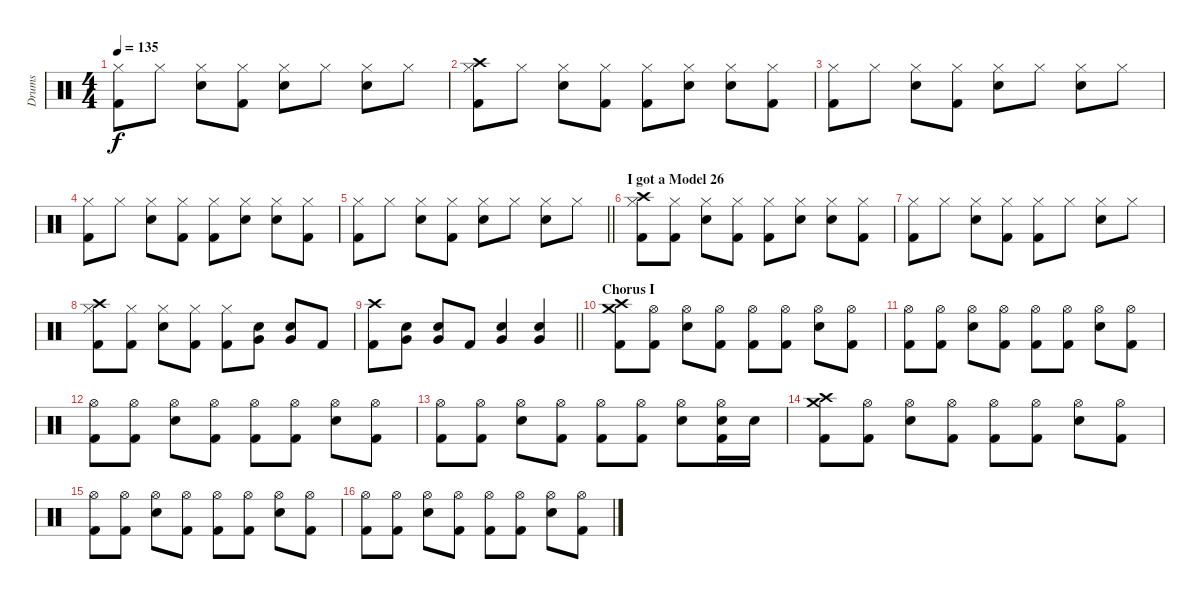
\track ("Drums" "Drums") {instrument percussion}
\staff {score}
\articulation defaults
\ts (4 4)
\tempo 135
\clef neutral
\ks c
("Hi-Hat (closed)" "Kick (hit) 2").8{dy f volume 13} "Hi-Hat (closed)".8 ("Hi-Hat (closed)" "Electric Snare (hit)").8 ("Hi-Hat (closed)" "Kick (hit) 2").8 ("Hi-Hat (closed)" "Electric Snare (hit)").8 "Hi-Hat (closed)".8 ("Hi-Hat (closed)" "Electric Snare (hit)").8 "Hi-Hat (closed)".8 |
("Crash high (hit)" "Hi-Hat (closed)" "Kick (hit) 2").8 "Hi-Hat (closed)".8 ("Hi-Hat (closed)" "Electric Snare (hit)").8 ("Hi-Hat (closed)" "Kick (hit) 2").8 ("Hi-Hat (closed)" "Kick (hit) 2").8 ("Hi-Hat (closed)" "Electric Snare (hit)").8 ("Hi-Hat (closed)" "Electric Snare (hit)").8 ("Hi-Hat (closed)" "Kick (hit) 2").8 |
("Hi-Hat (closed)" "Kick (hit) 2").8{volume 13} "Hi-Hat (closed)".8 ("Hi-Hat (closed)" "Electric Snare (hit)").8 ("Hi-Hat (closed)" "Kick (hit) 2").8 ("Hi-Hat (closed)" "Electric Snare (hit)").8 "Hi-Hat (closed)".8 ("Hi-Hat (closed)" "Electric Snare (hit)").8 "Hi-Hat (closed)".8 |
("Hi-Hat (closed)" "Kick (hit) 2").8 "Hi-Hat (closed)".8 ("Hi-Hat (closed)" "Electric Snare (hit)").8 ("Hi-Hat (closed)" "Kick (hit) 2").8 ("Hi-Hat (closed)" "Kick (hit) 2").8 ("Hi-Hat (closed)" "Electric Snare (hit)").8 ("Hi-Hat (closed)" "Electric Snare (hit)").8 ("Hi-Hat (closed)" "Kick (hit) 2").8 |
\barLineRight lightlight
("Hi-Hat (closed)" "Kick (hit) 2").8{volume 13} "Hi-Hat (closed)".8 ("Hi-Hat (closed)" "Electric Snare (hit)").8 ("Hi-Hat (closed)" "Kick (hit) 2").8 ("Hi-Hat (closed)" "Electric Snare (hit)").8 "Hi-Hat (closed)".8 ("Hi-Hat (closed)" "Electric Snare (hit)").8 "Hi-Hat (closed)".8 |
\section ("" "I got a Model 26")
("Crash high (hit)" "Hi-Hat (closed)" "Kick (hit) 2").8 ("Hi-Hat (closed)" "Kick (hit) 2").8 ("Hi-Hat (closed)" "Electric Snare (hit)").8 ("Hi-Hat (closed)" "Kick (hit) 2").8 ("Hi-Hat (closed)" "Kick (hit) 2").8 ("Hi-Hat (closed)" "Electric Snare (hit)").8 ("Hi-Hat (closed)" "Electric Snare (hit)").8 ("Hi-Hat (closed)" "Kick (hit) 2").8 |
("Hi-Hat (closed)" "Kick (hit) 2").8 "Hi-Hat (closed)".8 ("Hi-Hat (closed)" "Electric Snare (hit)").8 ("Hi-Hat (closed)" "Kick (hit) 2").8 ("Hi-Hat (closed)" "Kick (hit) 2").8 "Hi-Hat (closed)".8 ("Hi-Hat (closed)" "Electric Snare (hit)").8 "Hi-Hat (closed)".8 |
("Crash high (hit)" "Hi-Hat (closed)" "Kick (hit) 2").8 ("Hi-Hat (closed)" "Kick (hit) 2").8 ("Hi-Hat (closed)" "Electric Snare (hit)").8 ("Hi-Hat (closed)" "Kick (hit) 2").8 ("Hi-Hat (closed)" "Kick (hit) 2").8 ("Very Low Tom (hit)" "Electric Snare (hit)").8 ("Very Low Tom (hit)" "Electric Snare (hit)").8 "Kick (hit) 2".8 |
\barLineRight lightlight
("Crash high (hit)" "Kick (hit) 2").8 ("Very Low Tom (hit)" "Electric Snare (hit)").8 ("Very Low Tom (hit)" "Electric Snare (hit)").8 "Kick (hit) 2".8 ("Very Low Tom (hit)" "Electric Snare (hit)").4 ("Very Low Tom (hit)" "Electric Snare (hit)").4 |
\section ("" "Chorus I")
("Crash high (hit)" "Crash medium (hit)" "Kick (hit) 2").8 ("Hi-Hat (open)" "Kick (hit) 2").8 ("Hi-Hat (open)" "Electric Snare (hit)").8 ("Hi-Hat (open)" "Kick (hit) 2").8 ("Hi-Hat (open)" "Kick (hit) 2").8 ("Hi-Hat (open)" "Kick (hit) 2").8 ("Hi-Hat (open)" "Electric Snare (hit)").8 ("Hi-Hat (open)" "Kick (hit) 2").8 |
("Hi-Hat (open)" "Kick (hit) 2").8 ("Hi-Hat (open)" "Kick (hit) 2").8 ("Hi-Hat (open)" "Electric Snare (hit)").8 ("Hi-Hat (open)" "Kick (hit) 2").8 ("Hi-Hat (open)" "Kick (hit) 2").8 ("Hi-Hat (open)" "Kick (hit) 2").8 ("Hi-Hat (open)" "Electric Snare (hit)").8 ("Hi-Hat (open)" "Kick (hit) 2").8 |
("Hi-Hat (open)" "Kick (hit) 2").8 ("Hi-Hat (open)" "Kick (hit) 2").8 ("Hi-Hat (open)" "Electric Snare (hit)").8 ("Hi-Hat (open)" "Kick (hit) 2").8 ("Hi-Hat (open)" "Kick (hit) 2").8 ("Hi-Hat (open)" "Kick (hit) 2").8 ("Hi-Hat (open)" "Electric Snare (hit)").8 ("Hi-Hat (open)" "Kick (hit) 2").8 |
("Hi-Hat (open)" "Kick (hit) 2").8 ("Hi-Hat (open)" "Kick (hit) 2").8 ("Hi-Hat (open)" "Electric Snare (hit)").8 ("Hi-Hat (open)" "Kick (hit) 2").8 ("Hi-Hat (open)" "Kick (hit) 2").8 ("Hi-Hat (open)" "Kick (hit) 2").8 ("Hi-Hat (open)" "Electric Snare (hit)").8 ("Hi-Hat (open)" "Electric Snare (hit)" "Kick (hit) 2").16 "Electric Snare (hit)".16 |
("Crash high (hit)" "Crash medium (hit)" "Kick (hit) 2").8 ("Hi-Hat (open)" "Kick (hit) 2").8 ("Hi-Hat (open)" "Electric Snare (hit)").8 ("Hi-Hat (open)" "Kick (hit) 2").8 ("Hi-Hat (open)" "Kick (hit) 2").8 ("Hi-Hat (open)" "Kick (hit) 2").8 ("Hi-Hat (open)" "Electric Snare (hit)").8 ("Hi-Hat (open)" "Kick (hit) 2").8 |
("Hi-Hat (open)" "Kick (hit) 2").8 ("Hi-Hat (open)" "Kick (hit) 2").8 ("Hi-Hat (open)" "Electric Snare (hit)").8 ("Hi-Hat (open)" "Kick (hit) 2").8 ("Hi-Hat (open)" "Kick (hit) 2").8 ("Hi-Hat (open)" "Kick (hit) 2").8 ("Hi-Hat (open)" "Electric Snare (hit)").8 ("Hi-Hat (open)" "Kick (hit) 2").8 |
("Hi-Hat (open)" "Kick (hit) 2").8 ("Hi-Hat (open)" "Kick (hit) 2").8 ("Hi-Hat (open)" "Electric Snare (hit)").8 ("Hi-Hat (open)" "Kick (hit) 2").8 ("Hi-Hat (open)" "Kick (hit) 2").8 ("Hi-Hat (open)" "Kick (hit) 2").8 ("Hi-Hat (open)" "Electric Snare (hit)").8 ("Hi-Hat (open)" "Kick (hit) 2").8
